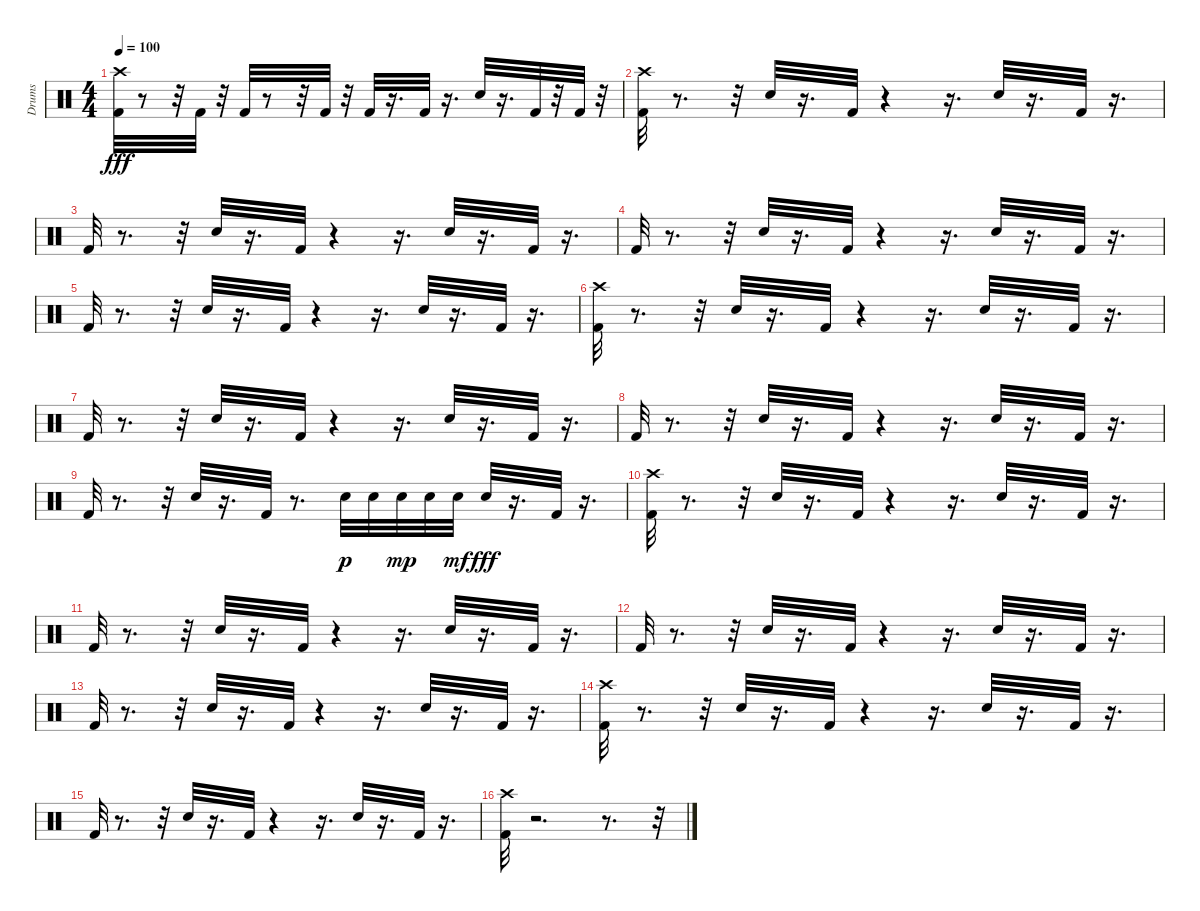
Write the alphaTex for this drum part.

\track ("Drums" "Drums") {instrument percussion}
\staff {score}
\articulation defaults
\ts (4 4)
\tempo 100
\clef neutral
\ks c
("Crash high (hit)" "Kick (hit) 2").32{dy fff} r.8 r.32 "Kick (hit) 2".32 r.32 "Kick (hit) 2".32 r.8 r.32 "Kick (hit) 2".32 r.32 "Kick (hit) 2".32 r.16{d} "Kick (hit) 2".32 r.16{d} "Electric Snare (hit)".32 r.16{d} "Kick (hit) 2".32 r.32 "Kick (hit) 2".32 r.32 |
("Crash high (hit)" "Kick (hit) 2").32 r.8{d} r.32 "Electric Snare (hit)".32 r.16{d} "Kick (hit) 2".32 r.4 r.16{d} "Electric Snare (hit)".32 r.16{d} "Kick (hit) 2".32 r.16{d} |
"Kick (hit) 2".32 r.8{d} r.32 "Electric Snare (hit)".32 r.16{d} "Kick (hit) 2".32 r.4 r.16{d} "Electric Snare (hit)".32 r.16{d} "Kick (hit) 2".32 r.16{d} |
"Kick (hit) 2".32 r.8{d} r.32 "Electric Snare (hit)".32 r.16{d} "Kick (hit) 2".32 r.4 r.16{d} "Electric Snare (hit)".32 r.16{d} "Kick (hit) 2".32 r.16{d} |
"Kick (hit) 2".32 r.8{d} r.32 "Electric Snare (hit)".32 r.16{d} "Kick (hit) 2".32 r.4 r.16{d} "Electric Snare (hit)".32 r.16{d} "Kick (hit) 2".32 r.16{d} |
("Crash high (hit)" "Kick (hit) 2").32 r.8{d} r.32 "Electric Snare (hit)".32 r.16{d} "Kick (hit) 2".32 r.4 r.16{d} "Electric Snare (hit)".32 r.16{d} "Kick (hit) 2".32 r.16{d} |
"Kick (hit) 2".32 r.8{d} r.32 "Electric Snare (hit)".32 r.16{d} "Kick (hit) 2".32 r.4 r.16{d} "Electric Snare (hit)".32 r.16{d} "Kick (hit) 2".32 r.16{d} |
"Kick (hit) 2".32 r.8{d} r.32 "Electric Snare (hit)".32 r.16{d} "Kick (hit) 2".32 r.4 r.16{d} "Electric Snare (hit)".32 r.16{d} "Kick (hit) 2".32 r.16{d} |
"Kick (hit) 2".32 r.8{d} r.32 "Electric Snare (hit)".32 r.16{d} "Kick (hit) 2".32 r.8{d} "Electric Snare (hit)".32{dy p} "Electric Snare (hit)".32 "Electric Snare (hit)".32{dy mp} "Electric Snare (hit)".32 "Electric Snare (hit)".32{dy mf} "Electric Snare (hit)".32{dy fff} r.16{d} "Kick (hit) 2".32 r.16{d} |
("Crash high (hit)" "Kick (hit) 2").32 r.8{d} r.32 "Electric Snare (hit)".32 r.16{d} "Kick (hit) 2".32 r.4 r.16{d} "Electric Snare (hit)".32 r.16{d} "Kick (hit) 2".32 r.16{d} |
"Kick (hit) 2".32 r.8{d} r.32 "Electric Snare (hit)".32 r.16{d} "Kick (hit) 2".32 r.4 r.16{d} "Electric Snare (hit)".32 r.16{d} "Kick (hit) 2".32 r.16{d} |
"Kick (hit) 2".32 r.8{d} r.32 "Electric Snare (hit)".32 r.16{d} "Kick (hit) 2".32 r.4 r.16{d} "Electric Snare (hit)".32 r.16{d} "Kick (hit) 2".32 r.16{d} |
"Kick (hit) 2".32 r.8{d} r.32 "Electric Snare (hit)".32 r.16{d} "Kick (hit) 2".32 r.4 r.16{d} "Electric Snare (hit)".32 r.16{d} "Kick (hit) 2".32 r.16{d} |
("Crash high (hit)" "Kick (hit) 2").32 r.8{d} r.32 "Electric Snare (hit)".32 r.16{d} "Kick (hit) 2".32 r.4 r.16{d} "Electric Snare (hit)".32 r.16{d} "Kick (hit) 2".32 r.16{d} |
"Kick (hit) 2".32 r.8{d} r.32 "Electric Snare (hit)".32 r.16{d} "Kick (hit) 2".32 r.4 r.16{d} "Electric Snare (hit)".32 r.16{d} "Kick (hit) 2".32 r.16{d} |
("Crash high (hit)" "Kick (hit) 2").32 r.2{d} r.8{d} r.32
